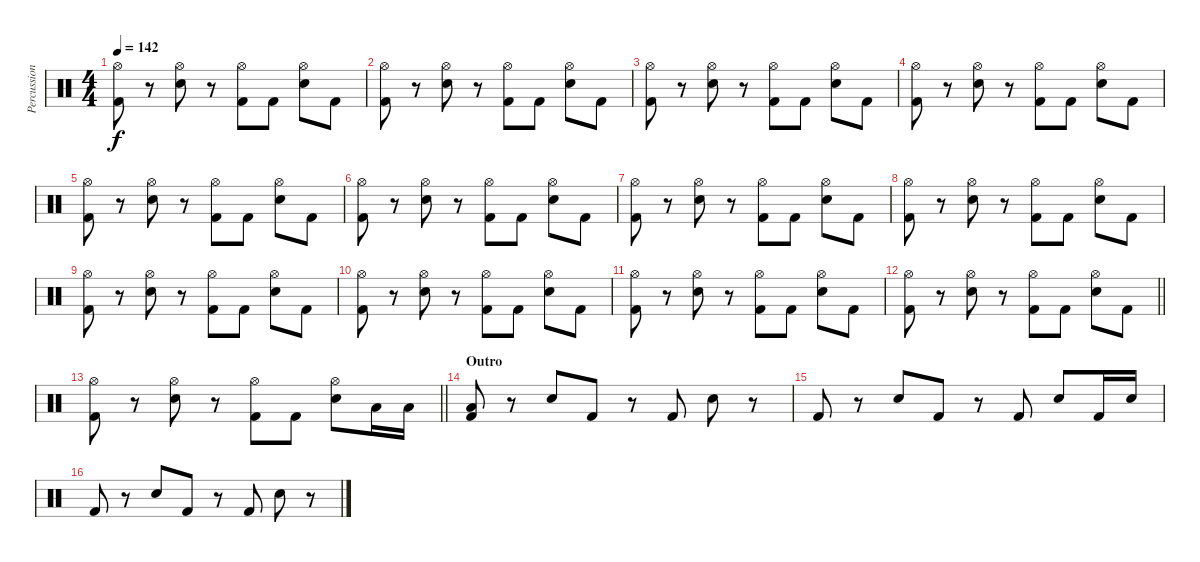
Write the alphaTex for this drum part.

\track ("Percussion" "Percussion") {instrument percussion}
\staff {score}
\articulation defaults
\ts (4 4)
\tempo 142
\clef neutral
\ks c
("Hi-Hat (open)" "Kick (hit) 2").8{dy f} r.8 ("Hi-Hat (open)" "Electric Snare (hit)").8 r.8 ("Hi-Hat (open)" "Kick (hit) 2").8 "Kick (hit) 2".8 ("Hi-Hat (open)" "Electric Snare (hit)").8 "Kick (hit) 2".8 |
("Hi-Hat (open)" "Kick (hit) 2").8 r.8 ("Hi-Hat (open)" "Electric Snare (hit)").8 r.8 ("Hi-Hat (open)" "Kick (hit) 2").8 "Kick (hit) 2".8 ("Hi-Hat (open)" "Electric Snare (hit)").8 "Kick (hit) 2".8 |
("Hi-Hat (open)" "Kick (hit) 2").8 r.8 ("Hi-Hat (open)" "Electric Snare (hit)").8 r.8 ("Hi-Hat (open)" "Kick (hit) 2").8 "Kick (hit) 2".8 ("Hi-Hat (open)" "Electric Snare (hit)").8 "Kick (hit) 2".8 |
("Hi-Hat (open)" "Kick (hit) 2").8 r.8 ("Hi-Hat (open)" "Electric Snare (hit)").8 r.8 ("Hi-Hat (open)" "Kick (hit) 2").8 "Kick (hit) 2".8 ("Hi-Hat (open)" "Electric Snare (hit)").8 "Kick (hit) 2".8 |
("Hi-Hat (open)" "Kick (hit) 2").8 r.8 ("Hi-Hat (open)" "Electric Snare (hit)").8 r.8 ("Hi-Hat (open)" "Kick (hit) 2").8 "Kick (hit) 2".8 ("Hi-Hat (open)" "Electric Snare (hit)").8 "Kick (hit) 2".8 |
("Hi-Hat (open)" "Kick (hit) 2").8 r.8 ("Hi-Hat (open)" "Electric Snare (hit)").8 r.8 ("Hi-Hat (open)" "Kick (hit) 2").8 "Kick (hit) 2".8 ("Hi-Hat (open)" "Electric Snare (hit)").8 "Kick (hit) 2".8 |
("Hi-Hat (open)" "Kick (hit) 2").8 r.8 ("Hi-Hat (open)" "Electric Snare (hit)").8 r.8 ("Hi-Hat (open)" "Kick (hit) 2").8 "Kick (hit) 2".8 ("Hi-Hat (open)" "Electric Snare (hit)").8 "Kick (hit) 2".8 |
("Hi-Hat (open)" "Kick (hit) 2").8 r.8 ("Hi-Hat (open)" "Electric Snare (hit)").8 r.8 ("Hi-Hat (open)" "Kick (hit) 2").8 "Kick (hit) 2".8 ("Hi-Hat (open)" "Electric Snare (hit)").8 "Kick (hit) 2".8 |
("Hi-Hat (open)" "Kick (hit) 2").8 r.8 ("Hi-Hat (open)" "Electric Snare (hit)").8 r.8 ("Hi-Hat (open)" "Kick (hit) 2").8 "Kick (hit) 2".8 ("Hi-Hat (open)" "Electric Snare (hit)").8 "Kick (hit) 2".8 |
("Hi-Hat (open)" "Kick (hit) 2").8 r.8 ("Hi-Hat (open)" "Electric Snare (hit)").8 r.8 ("Hi-Hat (open)" "Kick (hit) 2").8 "Kick (hit) 2".8 ("Hi-Hat (open)" "Electric Snare (hit)").8 "Kick (hit) 2".8 |
("Hi-Hat (open)" "Kick (hit) 2").8 r.8 ("Hi-Hat (open)" "Electric Snare (hit)").8 r.8 ("Hi-Hat (open)" "Kick (hit) 2").8 "Kick (hit) 2".8 ("Hi-Hat (open)" "Electric Snare (hit)").8 "Kick (hit) 2".8 |
\barLineRight lightlight
("Hi-Hat (open)" "Kick (hit) 2").8 r.8 ("Hi-Hat (open)" "Electric Snare (hit)").8 r.8 ("Hi-Hat (open)" "Kick (hit) 2").8 "Kick (hit) 2".8 ("Hi-Hat (open)" "Electric Snare (hit)").8 "Kick (hit) 2".8 |
\section ("" "")
\barLineRight lightlight
("Hi-Hat (open)" "Kick (hit) 2").8 r.8 ("Hi-Hat (open)" "Electric Snare (hit)").8 r.8 ("Hi-Hat (open)" "Kick (hit) 2").8 "Kick (hit) 2".8 ("Hi-Hat (open)" "Electric Snare (hit)").8 "Low Tom (hit)".16 "Low Tom (hit)".16 |
\section ("" "Outro")
("Low Tom (hit)" "Kick (hit) 2").8 r.8 "Electric Snare (hit)".8 "Kick (hit) 2".8 r.8 "Kick (hit) 2".8 "Electric Snare (hit)".8 r.8 |
"Kick (hit) 2".8 r.8 "Electric Snare (hit)".8 "Kick (hit) 2".8 r.8 "Kick (hit) 2".8 "Electric Snare (hit)".8 "Kick (hit) 2".16 "Electric Snare (hit)".16 |
"Kick (hit) 2".8 r.8 "Electric Snare (hit)".8 "Kick (hit) 2".8 r.8 "Kick (hit) 2".8 "Electric Snare (hit)".8 r.8
